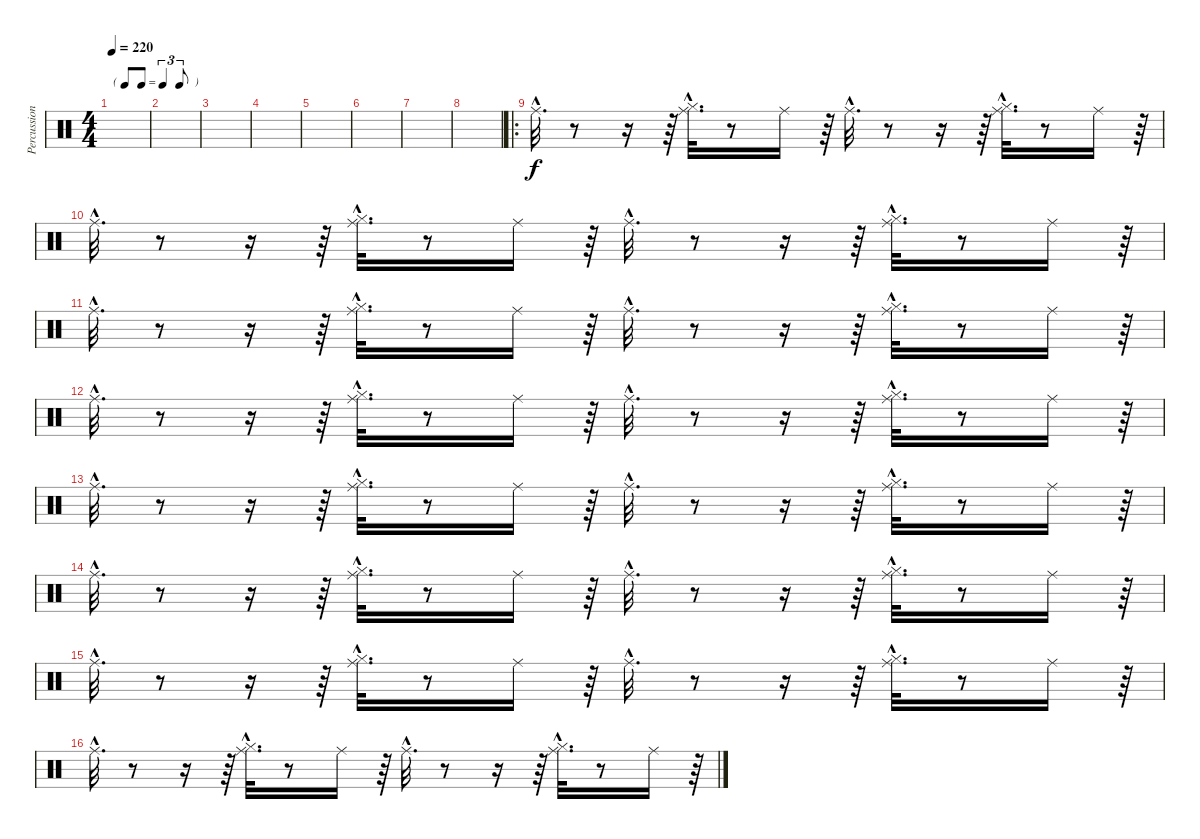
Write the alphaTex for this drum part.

\track ("Percussions" "Percussion") {instrument percussion}
\staff {score}
\articulation defaults
\ts (4 4)
\tf triplet8th
\tempo 220
\clef neutral
\ks c
|
|
|
|
|
|
|
|
\ro "Ride (middle)"{hac}.32{d}
r.8 r.16 r.64 ("Hi-Hat (closed)"{hac} "Ride (middle)"{hac}).32{d} r.8 "Ride (middle)".16 r.64 "Ride (middle)"{hac}.32{d} r.8 r.16 r.64 ("Hi-Hat (closed)"{hac} "Ride (middle)"{hac}).32{d} r.8 "Ride (middle)".16 r.64 |
"Ride (middle)"{hac}.32{d} r.8 r.16 r.64 ("Hi-Hat (closed)"{hac} "Ride (middle)"{hac}).32{d} r.8 "Ride (middle)".16 r.64 "Ride (middle)"{hac}.32{d} r.8 r.16 r.64 ("Hi-Hat (closed)"{hac} "Ride (middle)"{hac}).32{d} r.8 "Ride (middle)".16 r.64 |
"Ride (middle)"{hac}.32{d} r.8 r.16 r.64 ("Hi-Hat (closed)"{hac} "Ride (middle)"{hac}).32{d} r.8 "Ride (middle)".16 r.64 "Ride (middle)"{hac}.32{d} r.8 r.16 r.64 ("Hi-Hat (closed)"{hac} "Ride (middle)"{hac}).32{d} r.8 "Ride (middle)".16 r.64 |
"Ride (middle)"{hac}.32{d} r.8 r.16 r.64 ("Hi-Hat (closed)"{hac} "Ride (middle)"{hac}).32{d} r.8 "Ride (middle)".16 r.64 "Ride (middle)"{hac}.32{d} r.8 r.16 r.64 ("Hi-Hat (closed)"{hac} "Ride (middle)"{hac}).32{d} r.8 "Ride (middle)".16 r.64 |
"Ride (middle)"{hac}.32{d} r.8 r.16 r.64 ("Hi-Hat (closed)"{hac} "Ride (middle)"{hac}).32{d} r.8 "Ride (middle)".16 r.64 "Ride (middle)"{hac}.32{d} r.8 r.16 r.64 ("Hi-Hat (closed)"{hac} "Ride (middle)"{hac}).32{d} r.8 "Ride (middle)".16 r.64 |
"Ride (middle)"{hac}.32{d} r.8 r.16 r.64 ("Hi-Hat (closed)"{hac} "Ride (middle)"{hac}).32{d} r.8 "Ride (middle)".16 r.64 "Ride (middle)"{hac}.32{d} r.8 r.16 r.64 ("Hi-Hat (closed)"{hac} "Ride (middle)"{hac}).32{d} r.8 "Ride (middle)".16 r.64 |
"Ride (middle)"{hac}.32{d} r.8 r.16 r.64 ("Hi-Hat (closed)"{hac} "Ride (middle)"{hac}).32{d} r.8 "Ride (middle)".16 r.64 "Ride (middle)"{hac}.32{d} r.8 r.16 r.64 ("Hi-Hat (closed)"{hac} "Ride (middle)"{hac}).32{d} r.8 "Ride (middle)".16 r.64 |
"Ride (middle)"{hac}.32{d} r.8 r.16 r.64 ("Hi-Hat (closed)"{hac} "Ride (middle)"{hac}).32{d} r.8 "Ride (middle)".16 r.64 "Ride (middle)"{hac}.32{d} r.8 r.16 r.64 ("Hi-Hat (closed)"{hac} "Ride (middle)"{hac}).32{d} r.8 "Ride (middle)".16 r.64
